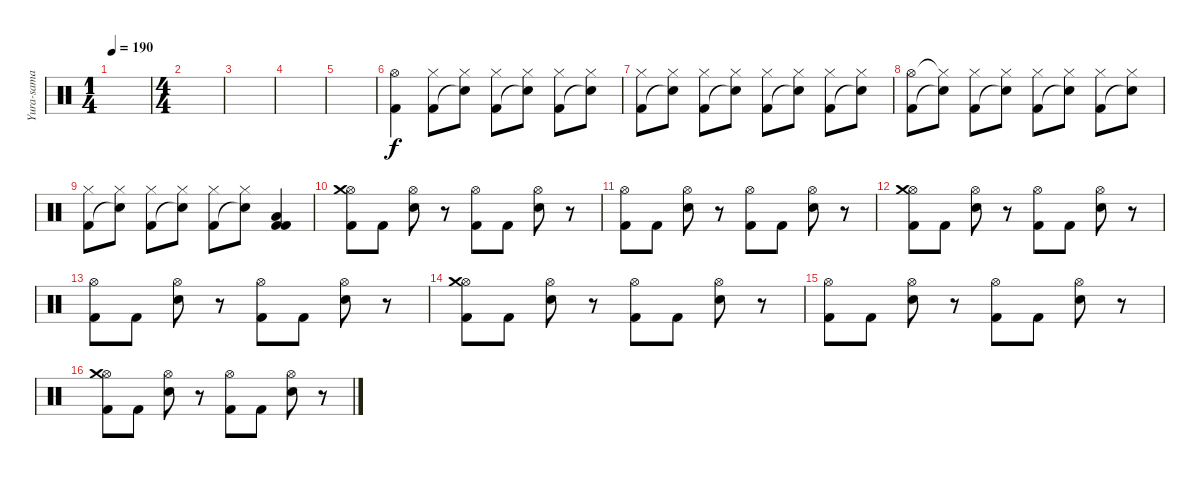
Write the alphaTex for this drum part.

\track ("Yura-sama" "Yura-sama") {instrument percussion}
\staff {score}
\articulation defaults
\ts (1 4)
\tempo 190
\clef neutral
\ks c
|
\ts (4 4)
|
|
|
|
("Hi-Hat (open)" "Kick (hit) 2").4 ("Hi-Hat (closed)" "Kick (hit) 2").8 ("Hi-Hat (closed)" "Snare (hit)"{t}).8 ("Hi-Hat (closed)" "Kick (hit) 2").8 ("Hi-Hat (closed)" "Snare (hit)"{t}).8 ("Hi-Hat (closed)" "Kick (hit) 2").8 ("Hi-Hat (closed)" "Snare (hit)"{t}).8 |
("Hi-Hat (closed)" "Kick (hit) 2").8 ("Hi-Hat (closed)" "Snare (hit)"{t}).8 ("Hi-Hat (closed)" "Kick (hit) 2").8 ("Hi-Hat (closed)" "Snare (hit)"{t}).8 ("Hi-Hat (closed)" "Kick (hit) 2").8 ("Hi-Hat (closed)" "Snare (hit)"{t}).8 ("Hi-Hat (closed)" "Kick (hit) 2").8 ("Hi-Hat (closed)" "Snare (hit)"{t}).8 |
("Hi-Hat (open)" "Kick (hit) 2").8 ("Hi-Hat (closed)"{t} "Snare (hit)"{t}).8 ("Hi-Hat (closed)" "Kick (hit) 2").8 ("Hi-Hat (closed)" "Snare (hit)"{t}).8 ("Hi-Hat (closed)" "Kick (hit) 2").8 ("Hi-Hat (closed)" "Snare (hit)"{t}).8 ("Hi-Hat (closed)" "Kick (hit) 2").8 ("Hi-Hat (closed)" "Snare (hit)"{t}).8 |
("Hi-Hat (closed)" "Kick (hit) 2").8 ("Hi-Hat (closed)" "Snare (hit)"{t}).8 ("Hi-Hat (closed)" "Kick (hit) 2").8 ("Hi-Hat (closed)" "Snare (hit)"{t}).8 ("Hi-Hat (closed)" "Kick (hit) 2").8 ("Hi-Hat (closed)" "Snare (hit)"{t}).8 ("Kick (hit) 2" "Kick (hit) 2" "Low Tom (hit)").4 |
("Hi-Hat (open)" "Kick (hit) 2" "Crash medium (hit)").8 "Kick (hit) 2".8 ("Hi-Hat (open)" "Electric Snare (hit)").8 r.8 ("Hi-Hat (open)" "Kick (hit) 2").8 "Kick (hit) 2".8 ("Hi-Hat (open)" "Electric Snare (hit)").8 r.8 |
("Hi-Hat (open)" "Kick (hit) 2").8 "Kick (hit) 2".8 ("Hi-Hat (open)" "Electric Snare (hit)").8 r.8 ("Hi-Hat (open)" "Kick (hit) 2").8 "Kick (hit) 2".8 ("Hi-Hat (open)" "Electric Snare (hit)").8 r.8 |
("Hi-Hat (open)" "Kick (hit) 2" "Crash medium (hit)").8 "Kick (hit) 2".8 ("Hi-Hat (open)" "Electric Snare (hit)").8 r.8 ("Hi-Hat (open)" "Kick (hit) 2").8 "Kick (hit) 2".8 ("Hi-Hat (open)" "Electric Snare (hit)").8 r.8 |
("Hi-Hat (open)" "Kick (hit) 2").8 "Kick (hit) 2".8 ("Hi-Hat (open)" "Electric Snare (hit)").8 r.8 ("Hi-Hat (open)" "Kick (hit) 2").8 "Kick (hit) 2".8 ("Hi-Hat (open)" "Electric Snare (hit)").8 r.8 |
("Hi-Hat (open)" "Kick (hit) 2" "Crash medium (hit)").8 "Kick (hit) 2".8 ("Hi-Hat (open)" "Electric Snare (hit)").8 r.8 ("Hi-Hat (open)" "Kick (hit) 2").8 "Kick (hit) 2".8 ("Hi-Hat (open)" "Electric Snare (hit)").8 r.8 |
("Hi-Hat (open)" "Kick (hit) 2").8 "Kick (hit) 2".8 ("Hi-Hat (open)" "Electric Snare (hit)").8 r.8 ("Hi-Hat (open)" "Kick (hit) 2").8 "Kick (hit) 2".8 ("Hi-Hat (open)" "Electric Snare (hit)").8 r.8 |
("Hi-Hat (open)" "Kick (hit) 2" "Crash medium (hit)").8 "Kick (hit) 2".8 ("Hi-Hat (open)" "Electric Snare (hit)").8 r.8 ("Hi-Hat (open)" "Kick (hit) 2").8 "Kick (hit) 2".8 ("Hi-Hat (open)" "Electric Snare (hit)").8 r.8
